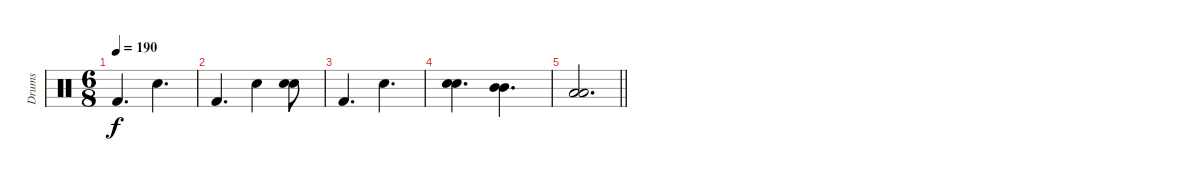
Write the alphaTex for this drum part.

\track ("Drums" "Drums") {instrument percussion}
\staff {score}
\articulation defaults
\ts (6 8)
\tempo 190
\clef neutral
\ks c "Kick (hit) 2".4{d dy f} "Electric Snare (hit)".4{d}
|
"Kick (hit) 2".4{d} "Electric Snare (hit)".4 ("Electric Snare (hit)" "Electric Snare (hit)").8{bd 480} |
"Kick (hit) 2".4{d} "Electric Snare (hit)".4{d} |
("Electric Snare (hit)" "Electric Snare (hit)").4{d bd 480} ("Mid Tom (hit)" "Mid Tom (hit)").4{d bd 480} |
\barLineRight lightlight
("Low Tom (hit)" "Low Tom (hit)").2{d bd 480}
